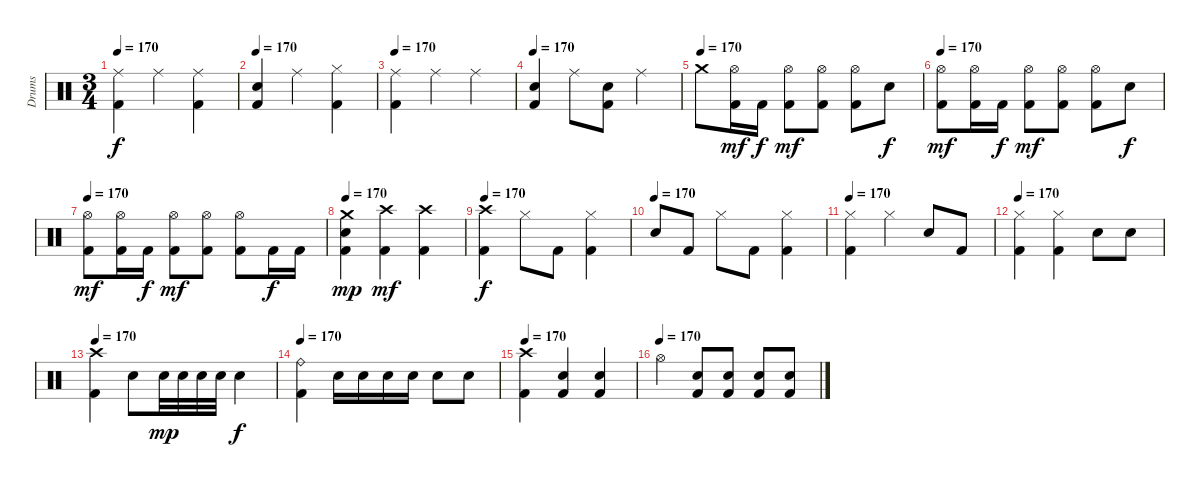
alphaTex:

\track ("Drums" "Drums") {instrument percussion}
\staff {score}
\articulation defaults
\ts (3 4)
\tempo 170
\clef neutral
\ks c
("Ride (middle)" "Kick (hit) 2").4{dy f} "Ride (middle)".4 ("Ride (middle)" "Kick (hit) 2").4 |
\tempo 170
("Electric Snare (hit)" "Kick (hit) 2").4 "Ride (middle)".4 ("Hi-Hat (closed)" "Kick (hit) 2").4 |
\tempo 170
("Ride (middle)" "Kick (hit) 2").4 "Ride (middle)".4 "Ride (middle)".4 |
\tempo 170
("Electric Snare (hit)" "Kick (hit) 2").4 "Ride (middle)".8 ("Electric Snare (hit)" "Kick (hit) 2").8 "Ride (middle)".4 |
\tempo (170)
"Crash medium (hit)".8 ("Hi-Hat (open)" "Kick (hit) 2").16{dy mf} "Kick (hit) 2".16{dy f} ("Hi-Hat (open)" "Kick (hit) 2").8{dy mf} ("Hi-Hat (open)" "Kick (hit) 2").8 ("Hi-Hat (open)" "Kick (hit) 2").8 "Electric Snare (hit)".8{dy f} |
\tempo 170
("Hi-Hat (open)" "Kick (hit) 2").8{dy mf} ("Hi-Hat (open)" "Kick (hit) 2").16 "Kick (hit) 2".16{dy f} ("Hi-Hat (open)" "Kick (hit) 2").8{dy mf} ("Hi-Hat (open)" "Kick (hit) 2").8 ("Hi-Hat (open)" "Kick (hit) 2").8 "Electric Snare (hit)".8{dy f} |
\tempo 170
("Hi-Hat (open)" "Kick (hit) 2").8{dy mf} ("Hi-Hat (open)" "Kick (hit) 2").16 "Kick (hit) 2".16{dy f} ("Hi-Hat (open)" "Kick (hit) 2").8{dy mf} ("Hi-Hat (open)" "Kick (hit) 2").8 ("Hi-Hat (open)" "Kick (hit) 2").8 "Kick (hit) 2".16{dy f} "Kick (hit) 2".16 |
\tempo 170
("Crash medium (hit)" "Electric Snare (hit)" "Kick (hit) 2").4{dy mp} ("Crash high (hit)" "Kick (hit) 2").4{dy mf} ("Crash high (hit)" "Kick (hit) 2").4 |
\tempo 170
("Crash high (hit)" "Kick (hit) 2").4{dy f} "Hi-Hat (closed)".8 "Kick (hit) 2".8 ("Hi-Hat (closed)" "Kick (hit) 2").4 |
\tempo (170)
"Electric Snare (hit)".8 "Kick (hit) 2".8 "Hi-Hat (closed)".8 "Kick (hit) 2".8 ("Hi-Hat (closed)" "Kick (hit) 2").4 |
\tempo 170
("Hi-Hat (closed)" "Kick (hit) 2").4 "Hi-Hat (closed)".4 "Electric Snare (hit)".8 "Kick (hit) 2".8 |
\tempo 170
("Hi-Hat (closed)" "Kick (hit) 2").4 ("Hi-Hat (closed)" "Kick (hit) 2").4 "Electric Snare (hit)".8 "Electric Snare (hit)".8 |
\tempo 170
("Crash high (hit)" "Kick (hit) 2").4 "Electric Snare (hit)".8 "Electric Snare (hit)".32{dy mp} "Electric Snare (hit)".32 "Electric Snare (hit)".32 "Electric Snare (hit)".32 "Electric Snare (hit)".4{dy f} |
\tempo 170
("Ride (bell)" "Kick (hit) 2").4 "Electric Snare (hit)".16 "Electric Snare (hit)".16 "Electric Snare (hit)".16 "Electric Snare (hit)".16 "Electric Snare (hit)".8 "Electric Snare (hit)".8 |
\tempo 170
("Crash high (hit)" "Kick (hit) 2").4 ("Electric Snare (hit)" "Kick (hit) 2").4 ("Electric Snare (hit)" "Kick (hit) 2").4 |
\tempo (170)
"Hi-Hat (open)".4 ("Electric Snare (hit)" "Kick (hit) 2").8 ("Electric Snare (hit)" "Kick (hit) 2").8 ("Electric Snare (hit)" "Kick (hit) 2").8 ("Electric Snare (hit)" "Kick (hit) 2").8
